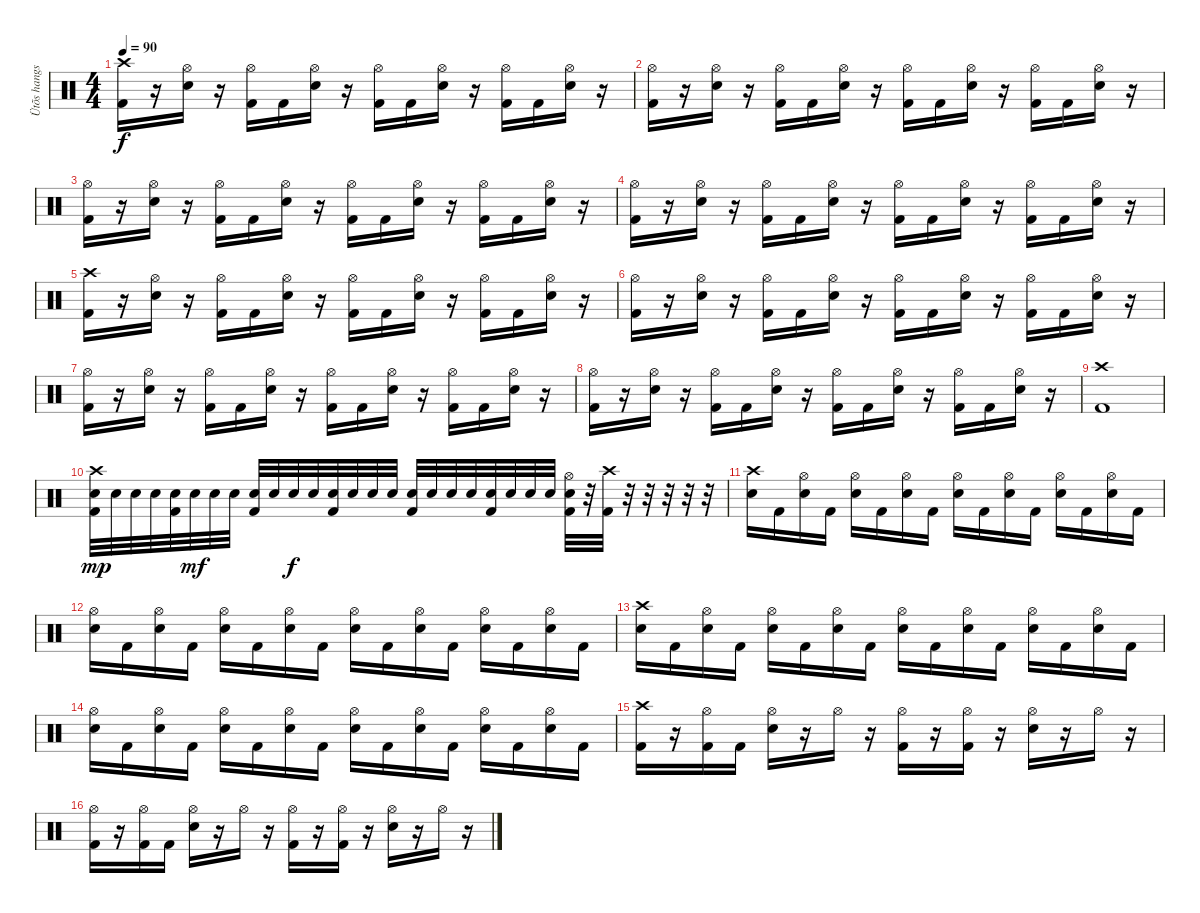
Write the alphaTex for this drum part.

\track ("Ütõs hangszer" "Ütõs hangs") {instrument percussion}
\staff {score}
\articulation defaults
\ts (4 4)
\tempo 90
\clef neutral
\ks c
("Crash high (hit)" "Kick (hit) 2").16{dy f} r.16 ("Hi-Hat (open)" "Snare (hit) 2").16 r.16 ("Hi-Hat (open)" "Kick (hit) 2").16 "Kick (hit) 2".16 ("Hi-Hat (open)" "Snare (hit) 2").16 r.16 ("Hi-Hat (open)" "Kick (hit) 2").16 "Kick (hit) 2".16 ("Hi-Hat (open)" "Snare (hit) 2").16 r.16 ("Hi-Hat (open)" "Kick (hit) 2").16 "Kick (hit) 2".16 ("Hi-Hat (open)" "Snare (hit) 2").16 r.16 |
("Hi-Hat (open)" "Kick (hit) 2").16 r.16 ("Hi-Hat (open)" "Snare (hit) 2").16 r.16 ("Hi-Hat (open)" "Kick (hit) 2").16 "Kick (hit) 2".16 ("Hi-Hat (open)" "Snare (hit) 2").16 r.16 ("Hi-Hat (open)" "Kick (hit) 2").16 "Kick (hit) 2".16 ("Hi-Hat (open)" "Snare (hit) 2").16 r.16 ("Hi-Hat (open)" "Kick (hit) 2").16 "Kick (hit) 2".16 ("Hi-Hat (open)" "Snare (hit) 2").16 r.16 |
("Hi-Hat (open)" "Kick (hit) 2").16 r.16 ("Hi-Hat (open)" "Snare (hit) 2").16 r.16 ("Hi-Hat (open)" "Kick (hit) 2").16 "Kick (hit) 2".16 ("Hi-Hat (open)" "Snare (hit) 2").16 r.16 ("Hi-Hat (open)" "Kick (hit) 2").16 "Kick (hit) 2".16 ("Hi-Hat (open)" "Snare (hit) 2").16 r.16 ("Hi-Hat (open)" "Kick (hit) 2").16 "Kick (hit) 2".16 ("Hi-Hat (open)" "Snare (hit) 2").16 r.16 |
("Hi-Hat (open)" "Kick (hit) 2").16 r.16 ("Hi-Hat (open)" "Snare (hit) 2").16 r.16 ("Hi-Hat (open)" "Kick (hit) 2").16 "Kick (hit) 2".16 ("Hi-Hat (open)" "Snare (hit) 2").16 r.16 ("Hi-Hat (open)" "Kick (hit) 2").16 "Kick (hit) 2".16 ("Hi-Hat (open)" "Snare (hit) 2").16 r.16 ("Hi-Hat (open)" "Kick (hit) 2").16 "Kick (hit) 2".16 ("Hi-Hat (open)" "Snare (hit) 2").16 r.16 |
("Crash high (hit)" "Kick (hit) 2").16 r.16 ("Hi-Hat (open)" "Snare (hit) 2").16 r.16 ("Hi-Hat (open)" "Kick (hit) 2").16 "Kick (hit) 2".16 ("Hi-Hat (open)" "Snare (hit) 2").16 r.16 ("Hi-Hat (open)" "Kick (hit) 2").16 "Kick (hit) 2".16 ("Hi-Hat (open)" "Snare (hit) 2").16 r.16 ("Hi-Hat (open)" "Kick (hit) 2").16 "Kick (hit) 2".16 ("Hi-Hat (open)" "Snare (hit) 2").16 r.16 |
("Hi-Hat (open)" "Kick (hit) 2").16 r.16 ("Hi-Hat (open)" "Snare (hit) 2").16 r.16 ("Hi-Hat (open)" "Kick (hit) 2").16 "Kick (hit) 2".16 ("Hi-Hat (open)" "Snare (hit) 2").16 r.16 ("Hi-Hat (open)" "Kick (hit) 2").16 "Kick (hit) 2".16 ("Hi-Hat (open)" "Snare (hit) 2").16 r.16 ("Hi-Hat (open)" "Kick (hit) 2").16 "Kick (hit) 2".16 ("Hi-Hat (open)" "Snare (hit) 2").16 r.16 |
("Hi-Hat (open)" "Kick (hit) 2").16 r.16 ("Hi-Hat (open)" "Snare (hit) 2").16 r.16 ("Hi-Hat (open)" "Kick (hit) 2").16 "Kick (hit) 2".16 ("Hi-Hat (open)" "Snare (hit) 2").16 r.16 ("Hi-Hat (open)" "Kick (hit) 2").16 "Kick (hit) 2".16 ("Hi-Hat (open)" "Snare (hit) 2").16 r.16 ("Hi-Hat (open)" "Kick (hit) 2").16 "Kick (hit) 2".16 ("Hi-Hat (open)" "Snare (hit) 2").16 r.16 |
("Hi-Hat (open)" "Kick (hit) 2").16 r.16 ("Hi-Hat (open)" "Snare (hit) 2").16 r.16 ("Hi-Hat (open)" "Kick (hit) 2").16 "Kick (hit) 2".16 ("Hi-Hat (open)" "Snare (hit) 2").16 r.16 ("Hi-Hat (open)" "Kick (hit) 2").16 "Kick (hit) 2".16 ("Hi-Hat (open)" "Snare (hit) 2").16 r.16 ("Hi-Hat (open)" "Kick (hit) 2").16 "Kick (hit) 2".16 ("Hi-Hat (open)" "Snare (hit) 2").16 r.16 |
("Crash high (hit)" "Kick (hit) 2").1 |
("Crash high (hit)" "Snare (hit) 2" "Kick (hit) 2").32{dy mp} "Snare (hit) 2".32 "Snare (hit) 2".32 "Snare (hit) 2".32 ("Snare (hit) 2" "Kick (hit) 2").32 "Snare (hit) 2".32{dy mf} "Snare (hit) 2".32 "Snare (hit) 2".32 ("Snare (hit) 2" "Kick (hit) 2").32 "Snare (hit) 2".32 "Snare (hit) 2".32{dy f} "Snare (hit) 2".32 ("Snare (hit) 2" "Kick (hit) 2").32 "Snare (hit) 2".32 "Snare (hit) 2".32 "Snare (hit) 2".32 ("Snare (hit) 2" "Kick (hit) 2").32 "Snare (hit) 2".32 "Snare (hit) 2".32 "Snare (hit) 2".32 ("Snare (hit) 2" "Kick (hit) 2").32 "Snare (hit) 2".32 "Snare (hit) 2".32 "Snare (hit) 2".32 ("Hi-Hat (open)" "Snare (hit) 2" "Kick (hit) 2").32 r.32 ("Crash high (hit)" "Kick (hit) 2").32 r.32 r.32 r.32 r.32 r.32 |
("Crash high (hit)" "Snare (hit) 2").16 "Kick (hit) 2".16 ("Hi-Hat (open)" "Snare (hit) 2").16 "Kick (hit) 2".16 ("Hi-Hat (open)" "Snare (hit) 2").16 "Kick (hit) 2".16 ("Hi-Hat (open)" "Snare (hit) 2").16 "Kick (hit) 2".16 ("Hi-Hat (open)" "Snare (hit) 2").16 "Kick (hit) 2".16 ("Hi-Hat (open)" "Snare (hit) 2").16 "Kick (hit) 2".16 ("Hi-Hat (open)" "Snare (hit) 2").16 "Kick (hit) 2".16 ("Hi-Hat (open)" "Snare (hit) 2").16 "Kick (hit) 2".16 |
("Hi-Hat (open)" "Snare (hit) 2").16 "Kick (hit) 2".16 ("Hi-Hat (open)" "Snare (hit) 2").16 "Kick (hit) 2".16 ("Hi-Hat (open)" "Snare (hit) 2").16 "Kick (hit) 2".16 ("Hi-Hat (open)" "Snare (hit) 2").16 "Kick (hit) 2".16 ("Hi-Hat (open)" "Snare (hit) 2").16 "Kick (hit) 2".16 ("Hi-Hat (open)" "Snare (hit) 2").16 "Kick (hit) 2".16 ("Hi-Hat (open)" "Snare (hit) 2").16 "Kick (hit) 2".16 ("Hi-Hat (open)" "Snare (hit) 2").16 "Kick (hit) 2".16 |
("Crash high (hit)" "Snare (hit) 2").16 "Kick (hit) 2".16 ("Hi-Hat (open)" "Snare (hit) 2").16 "Kick (hit) 2".16 ("Hi-Hat (open)" "Snare (hit) 2").16 "Kick (hit) 2".16 ("Hi-Hat (open)" "Snare (hit) 2").16 "Kick (hit) 2".16 ("Hi-Hat (open)" "Snare (hit) 2").16 "Kick (hit) 2".16 ("Hi-Hat (open)" "Snare (hit) 2").16 "Kick (hit) 2".16 ("Hi-Hat (open)" "Snare (hit) 2").16 "Kick (hit) 2".16 ("Hi-Hat (open)" "Snare (hit) 2").16 "Kick (hit) 2".16 |
("Hi-Hat (open)" "Snare (hit) 2").16 "Kick (hit) 2".16 ("Hi-Hat (open)" "Snare (hit) 2").16 "Kick (hit) 2".16 ("Hi-Hat (open)" "Snare (hit) 2").16 "Kick (hit) 2".16 ("Hi-Hat (open)" "Snare (hit) 2").16 "Kick (hit) 2".16 ("Hi-Hat (open)" "Snare (hit) 2").16 "Kick (hit) 2".16 ("Hi-Hat (open)" "Snare (hit) 2").16 "Kick (hit) 2".16 ("Hi-Hat (open)" "Snare (hit) 2").16 "Kick (hit) 2".16 ("Hi-Hat (open)" "Snare (hit) 2").16 "Kick (hit) 2".16 |
("Crash high (hit)" "Kick (hit) 2").16 r.16 ("Hi-Hat (open)" "Kick (hit) 2").16 "Kick (hit) 2".16 ("Hi-Hat (open)" "Snare (hit) 2").16 r.16 "Hi-Hat (open)".16 r.16 ("Hi-Hat (open)" "Kick (hit) 2").16 r.16 ("Hi-Hat (open)" "Kick (hit) 2").16 r.16 ("Hi-Hat (open)" "Snare (hit) 2").16 r.16 "Hi-Hat (open)".16 r.16 |
("Hi-Hat (open)" "Kick (hit) 2").16 r.16 ("Hi-Hat (open)" "Kick (hit) 2").16 "Kick (hit) 2".16 ("Hi-Hat (open)" "Snare (hit) 2").16 r.16 "Hi-Hat (open)".16 r.16 ("Hi-Hat (open)" "Kick (hit) 2").16 r.16 ("Hi-Hat (open)" "Kick (hit) 2").16 r.16 ("Hi-Hat (open)" "Snare (hit) 2").16 r.16 "Hi-Hat (open)".16 r.16
